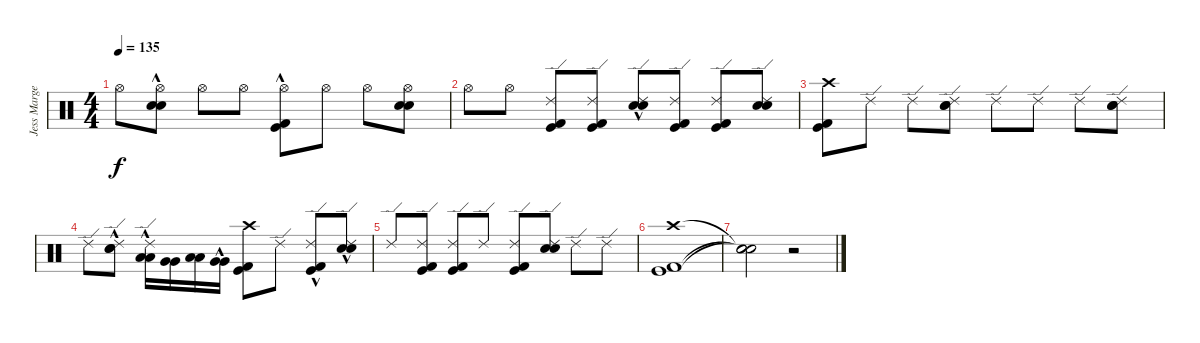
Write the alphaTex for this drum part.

\track ("Jess Margera" "Jess Marge") {instrument percussion}
\staff {score}
\articulation defaults
\ts (4 4)
\tempo 135
\clef neutral
\ks c "Hi-Hat (open)".8{dy f}
("Electric Snare (hit)"{hac} "Electric Snare (hit)"{hac} "Hi-Hat (open)").8 "Hi-Hat (open)".8 "Hi-Hat (open)".8 ("Kick (hit)"{hac} "Kick (hit) 2"{hac} "Hi-Hat (open)").8 "Hi-Hat (open)".8 "Hi-Hat (open)".8 ("Electric Snare (hit)" "Electric Snare (hit)" "Hi-Hat (open)").8 |
"Hi-Hat (open)".8 "Hi-Hat (open)".8 ("Kick (hit)" "Kick (hit) 2" "Ride (edge) 2").8 ("Kick (hit)" "Kick (hit) 2" "Ride (edge) 2").8 ("Electric Snare (hit)"{hac} "Electric Snare (hit)"{hac} "Ride (edge) 2").8 ("Kick (hit)" "Kick (hit) 2" "Ride (edge) 2").8 ("Kick (hit)" "Kick (hit) 2" "Ride (edge) 2").8 ("Electric Snare (hit)" "Electric Snare (hit)" "Ride (edge) 2").8 |
("Kick (hit)" "Kick (hit) 2" "Crash high (hit)").8 "Ride (edge) 2".8 "Ride (edge) 2".8 ("Electric Snare (hit)" "Electric Snare (hit)" "Ride (edge) 2").8 "Ride (edge) 2".8 "Ride (edge) 2".8 "Ride (edge) 2".8 ("Electric Snare (hit)" "Electric Snare (hit)" "Ride (edge) 2").8 |
"Ride (edge) 2".8 ("Electric Snare (hit)"{hac} "Electric Snare (hit)"{hac} "Ride (edge) 2").8 ("Low Tom (hit)" "Low Tom (hit)" "Ride (edge) 2"{hac}).16 ("Very Low Tom (hit)" "Very Low Tom (hit)").16 ("Low Tom (hit)" "Low Tom (hit)").16 ("Very Low Tom (hit)"{hac} "Very Low Tom (hit)"{hac}).16 ("Kick (hit)" "Kick (hit) 2" "Crash high (hit)").8 "Ride (edge) 2".8 ("Kick (hit)"{hac} "Kick (hit) 2"{hac} "Ride (edge) 2").8 ("Electric Snare (hit)"{hac} "Electric Snare (hit)"{hac} "Ride (edge) 2").8 |
"Ride (edge) 2".8 ("Kick (hit)" "Kick (hit) 2" "Ride (edge) 2").8 ("Kick (hit)" "Kick (hit) 2" "Ride (edge) 2").8 "Ride (edge) 2".8 ("Kick (hit)" "Kick (hit) 2" "Ride (edge) 2").8 ("Electric Snare (hit)" "Electric Snare (hit)" "Ride (edge) 2").8 "Ride (edge) 2".8 "Ride (edge) 2".8 |
("Kick (hit)" "Kick (hit) 2" "Crash high (hit)").1 |
("Snare (hit)"{t} "Snare (hit)"{t} "Snare (hit)"{t}).2 r.2
